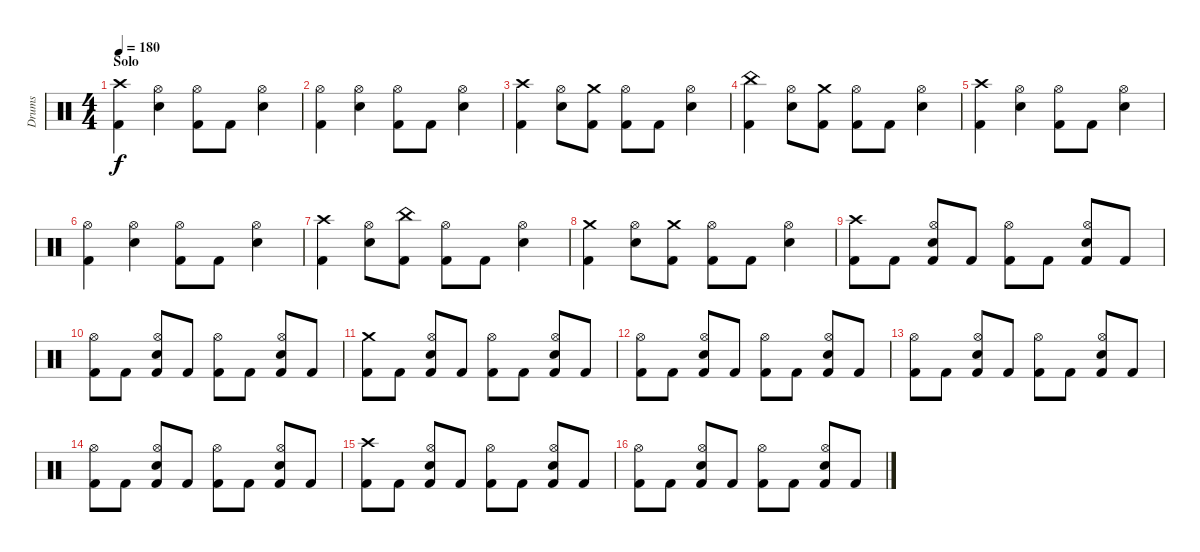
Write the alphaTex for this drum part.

\track ("Drums" "Drums") {instrument percussion}
\staff {score}
\articulation defaults
\ts (4 4)
\section ("" "Solo")
\tempo 180
\clef neutral
\ks c
("Crash high (hit)" "Kick (hit) 2").4{dy f} ("Hi-Hat (open)" "Electric Snare (hit)").4 ("Hi-Hat (open)" "Kick (hit) 2").8 "Kick (hit) 2".8 ("Hi-Hat (open)" "Electric Snare (hit)").4 |
("Hi-Hat (open)" "Kick (hit) 2").4 ("Hi-Hat (open)" "Electric Snare (hit)").4 ("Hi-Hat (open)" "Kick (hit) 2").8 "Kick (hit) 2".8 ("Hi-Hat (open)" "Electric Snare (hit)").4 |
("Crash high (hit)" "Kick (hit) 2").4 ("Hi-Hat (open)" "Electric Snare (hit)").8 ("Crash medium (hit)" "Kick (hit) 2").8 ("Hi-Hat (open)" "Kick (hit) 2").8 "Kick (hit) 2".8 ("Hi-Hat (open)" "Electric Snare (hit)").4 |
("China (hit)" "Kick (hit) 2").4 ("Hi-Hat (open)" "Electric Snare (hit)").8 ("Crash medium (hit)" "Kick (hit) 2").8 ("Hi-Hat (open)" "Kick (hit) 2").8 "Kick (hit) 2".8 ("Hi-Hat (open)" "Electric Snare (hit)").4 |
("Crash high (hit)" "Kick (hit) 2").4 ("Hi-Hat (open)" "Electric Snare (hit)").4 ("Hi-Hat (open)" "Kick (hit) 2").8 "Kick (hit) 2".8 ("Hi-Hat (open)" "Electric Snare (hit)").4 |
("Hi-Hat (open)" "Kick (hit) 2").4 ("Hi-Hat (open)" "Electric Snare (hit)").4 ("Hi-Hat (open)" "Kick (hit) 2").8 "Kick (hit) 2".8 ("Hi-Hat (open)" "Electric Snare (hit)").4 |
("Crash high (hit)" "Kick (hit) 2").4 ("Hi-Hat (open)" "Electric Snare (hit)").8 ("China (hit)" "Kick (hit) 2").8 ("Hi-Hat (open)" "Kick (hit) 2").8 "Kick (hit) 2".8 ("Hi-Hat (open)" "Electric Snare (hit)").4 |
("Crash medium (hit)" "Kick (hit) 2").4 ("Hi-Hat (open)" "Electric Snare (hit)").8 ("Crash medium (hit)" "Kick (hit) 2").8 ("Hi-Hat (open)" "Kick (hit) 2").8 "Kick (hit) 2".8 ("Hi-Hat (open)" "Electric Snare (hit)").4 |
("Crash high (hit)" "Kick (hit) 2").8 "Kick (hit) 2".8 ("Hi-Hat (open)" "Electric Snare (hit)" "Kick (hit) 2").8 "Kick (hit) 2".8 ("Hi-Hat (open)" "Kick (hit) 2").8 "Kick (hit) 2".8 ("Hi-Hat (open)" "Electric Snare (hit)" "Kick (hit) 2").8 "Kick (hit) 2".8 |
("Hi-Hat (open)" "Kick (hit) 2").8 "Kick (hit) 2".8 ("Hi-Hat (open)" "Electric Snare (hit)" "Kick (hit) 2").8 "Kick (hit) 2".8 ("Hi-Hat (open)" "Kick (hit) 2").8 "Kick (hit) 2".8 ("Hi-Hat (open)" "Electric Snare (hit)" "Kick (hit) 2").8 "Kick (hit) 2".8 |
("Crash medium (hit)" "Kick (hit) 2").8 "Kick (hit) 2".8 ("Hi-Hat (open)" "Electric Snare (hit)" "Kick (hit) 2").8 "Kick (hit) 2".8 ("Hi-Hat (open)" "Kick (hit) 2").8 "Kick (hit) 2".8 ("Hi-Hat (open)" "Electric Snare (hit)" "Kick (hit) 2").8 "Kick (hit) 2".8 |
("Hi-Hat (open)" "Kick (hit) 2").8 "Kick (hit) 2".8 ("Hi-Hat (open)" "Electric Snare (hit)" "Kick (hit) 2").8 "Kick (hit) 2".8 ("Hi-Hat (open)" "Kick (hit) 2").8 "Kick (hit) 2".8 ("Hi-Hat (open)" "Electric Snare (hit)" "Kick (hit) 2").8 "Kick (hit) 2".8 |
("Hi-Hat (open)" "Kick (hit) 2").8 "Kick (hit) 2".8 ("Hi-Hat (open)" "Electric Snare (hit)" "Kick (hit) 2").8 "Kick (hit) 2".8 ("Hi-Hat (open)" "Kick (hit) 2").8 "Kick (hit) 2".8 ("Hi-Hat (open)" "Electric Snare (hit)" "Kick (hit) 2").8 "Kick (hit) 2".8 |
("Hi-Hat (open)" "Kick (hit) 2").8 "Kick (hit) 2".8 ("Hi-Hat (open)" "Electric Snare (hit)" "Kick (hit) 2").8 "Kick (hit) 2".8 ("Hi-Hat (open)" "Kick (hit) 2").8 "Kick (hit) 2".8 ("Hi-Hat (open)" "Electric Snare (hit)" "Kick (hit) 2").8 "Kick (hit) 2".8 |
("Crash high (hit)" "Kick (hit) 2").8 "Kick (hit) 2".8 ("Hi-Hat (open)" "Electric Snare (hit)" "Kick (hit) 2").8 "Kick (hit) 2".8 ("Hi-Hat (open)" "Kick (hit) 2").8 "Kick (hit) 2".8 ("Hi-Hat (open)" "Electric Snare (hit)" "Kick (hit) 2").8 "Kick (hit) 2".8 |
("Hi-Hat (open)" "Kick (hit) 2").8 "Kick (hit) 2".8 ("Hi-Hat (open)" "Electric Snare (hit)" "Kick (hit) 2").8 "Kick (hit) 2".8 ("Hi-Hat (open)" "Kick (hit) 2").8 "Kick (hit) 2".8 ("Hi-Hat (open)" "Electric Snare (hit)" "Kick (hit) 2").8 "Kick (hit) 2".8
